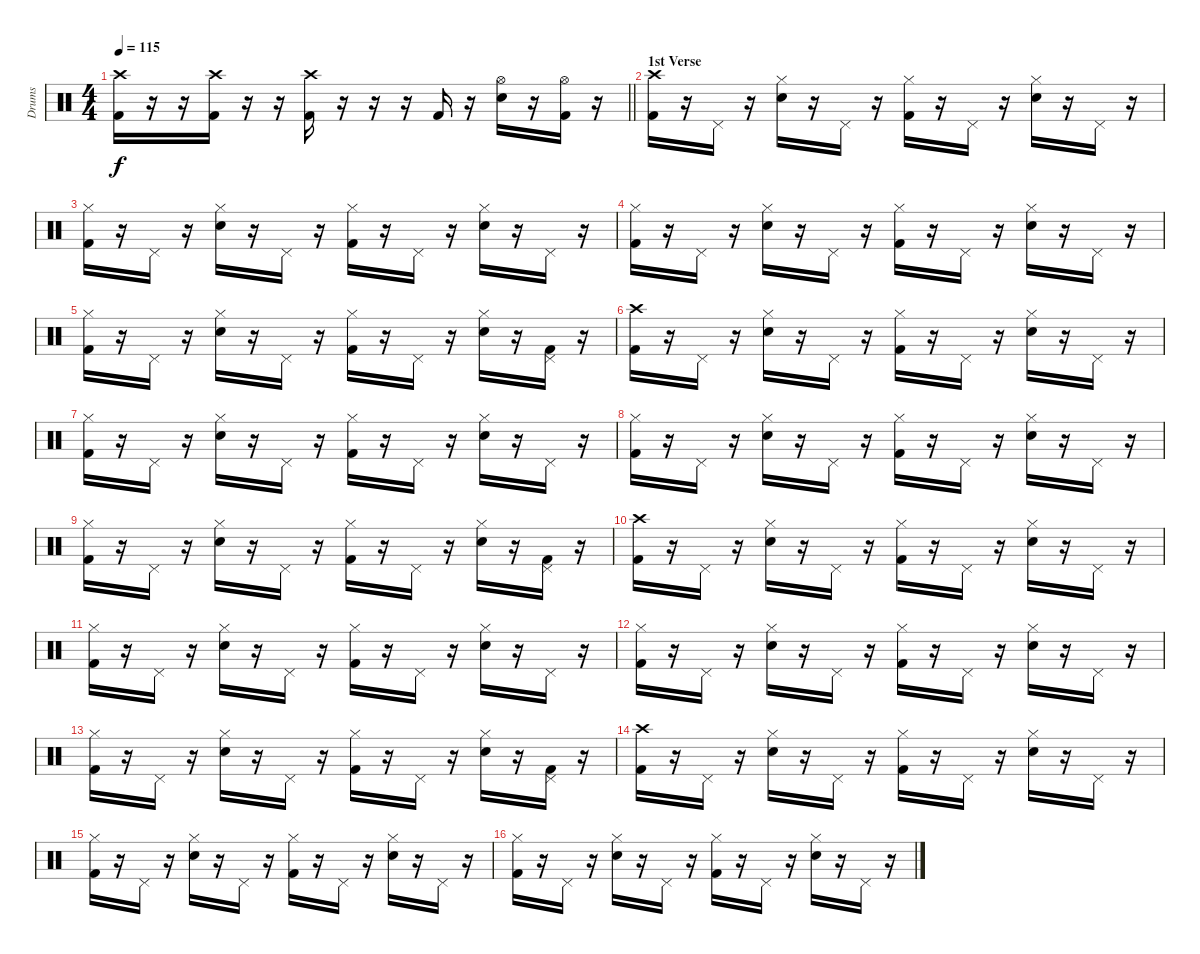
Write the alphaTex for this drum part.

\track ("Drums" "Drums") {instrument percussion}
\staff {score}
\articulation defaults
\ts (4 4)
\tempo 115
\clef neutral
\barLineRight lightlight
\ks c
("Crash high (hit)" "Kick (hit) 2").16{dy f} r.16 r.16 ("Crash high (hit)" "Kick (hit) 2").16 r.16 r.16 ("Crash high (hit)" "Kick (hit) 2").16 r.16 r.16 r.16 "Kick (hit) 2".16 r.16 ("Hi-Hat (open)" "Snare (hit) 2").16 r.16 ("Hi-Hat (open)" "Kick (hit) 2").16 r.16 |
\section ("" "1st Verse")
("Crash high (hit)" "Kick (hit) 2").16 r.16 "Pedal Hi-Hat (hit)".16 r.16 ("Hi-Hat (closed)" "Snare (hit) 2").16 r.16 "Pedal Hi-Hat (hit)".16 r.16 ("Hi-Hat (closed)" "Kick (hit) 2").16 r.16 "Pedal Hi-Hat (hit)".16 r.16 ("Hi-Hat (closed)" "Snare (hit) 2").16 r.16 "Pedal Hi-Hat (hit)".16 r.16 |
("Hi-Hat (closed)" "Kick (hit) 2").16 r.16 "Pedal Hi-Hat (hit)".16 r.16 ("Hi-Hat (closed)" "Snare (hit) 2").16 r.16 "Pedal Hi-Hat (hit)".16 r.16 ("Hi-Hat (closed)" "Kick (hit) 2").16 r.16 "Pedal Hi-Hat (hit)".16 r.16 ("Hi-Hat (closed)" "Snare (hit) 2").16 r.16 "Pedal Hi-Hat (hit)".16 r.16 |
("Hi-Hat (closed)" "Kick (hit) 2").16 r.16 "Pedal Hi-Hat (hit)".16 r.16 ("Hi-Hat (closed)" "Snare (hit) 2").16 r.16 "Pedal Hi-Hat (hit)".16 r.16 ("Hi-Hat (closed)" "Kick (hit) 2").16 r.16 "Pedal Hi-Hat (hit)".16 r.16 ("Hi-Hat (closed)" "Snare (hit) 2").16 r.16 "Pedal Hi-Hat (hit)".16 r.16 |
("Hi-Hat (closed)" "Kick (hit) 2").16 r.16 "Pedal Hi-Hat (hit)".16 r.16 ("Hi-Hat (closed)" "Snare (hit) 2").16 r.16 "Pedal Hi-Hat (hit)".16 r.16 ("Hi-Hat (closed)" "Kick (hit) 2").16 r.16 "Pedal Hi-Hat (hit)".16 r.16 ("Hi-Hat (closed)" "Snare (hit) 2").16 r.16 ("Pedal Hi-Hat (hit)" "Kick (hit) 2").16 r.16 |
("Crash high (hit)" "Kick (hit) 2").16 r.16 "Pedal Hi-Hat (hit)".16 r.16 ("Hi-Hat (closed)" "Snare (hit) 2").16 r.16 "Pedal Hi-Hat (hit)".16 r.16 ("Hi-Hat (closed)" "Kick (hit) 2").16 r.16 "Pedal Hi-Hat (hit)".16 r.16 ("Hi-Hat (closed)" "Snare (hit) 2").16 r.16 "Pedal Hi-Hat (hit)".16 r.16 |
("Hi-Hat (closed)" "Kick (hit) 2").16 r.16 "Pedal Hi-Hat (hit)".16 r.16 ("Hi-Hat (closed)" "Snare (hit) 2").16 r.16 "Pedal Hi-Hat (hit)".16 r.16 ("Hi-Hat (closed)" "Kick (hit) 2").16 r.16 "Pedal Hi-Hat (hit)".16 r.16 ("Hi-Hat (closed)" "Snare (hit) 2").16 r.16 "Pedal Hi-Hat (hit)".16 r.16 |
("Hi-Hat (closed)" "Kick (hit) 2").16 r.16 "Pedal Hi-Hat (hit)".16 r.16 ("Hi-Hat (closed)" "Snare (hit) 2").16 r.16 "Pedal Hi-Hat (hit)".16 r.16 ("Hi-Hat (closed)" "Kick (hit) 2").16 r.16 "Pedal Hi-Hat (hit)".16 r.16 ("Hi-Hat (closed)" "Snare (hit) 2").16 r.16 "Pedal Hi-Hat (hit)".16 r.16 |
("Hi-Hat (closed)" "Kick (hit) 2").16 r.16 "Pedal Hi-Hat (hit)".16 r.16 ("Hi-Hat (closed)" "Snare (hit) 2").16 r.16 "Pedal Hi-Hat (hit)".16 r.16 ("Hi-Hat (closed)" "Kick (hit) 2").16 r.16 "Pedal Hi-Hat (hit)".16 r.16 ("Hi-Hat (closed)" "Snare (hit) 2").16 r.16 ("Pedal Hi-Hat (hit)" "Kick (hit) 2").16 r.16 |
("Crash high (hit)" "Kick (hit) 2").16 r.16 "Pedal Hi-Hat (hit)".16 r.16 ("Hi-Hat (closed)" "Snare (hit) 2").16 r.16 "Pedal Hi-Hat (hit)".16 r.16 ("Hi-Hat (closed)" "Kick (hit) 2").16 r.16 "Pedal Hi-Hat (hit)".16 r.16 ("Hi-Hat (closed)" "Snare (hit) 2").16 r.16 "Pedal Hi-Hat (hit)".16 r.16 |
("Hi-Hat (closed)" "Kick (hit) 2").16 r.16 "Pedal Hi-Hat (hit)".16 r.16 ("Hi-Hat (closed)" "Snare (hit) 2").16 r.16 "Pedal Hi-Hat (hit)".16 r.16 ("Hi-Hat (closed)" "Kick (hit) 2").16 r.16 "Pedal Hi-Hat (hit)".16 r.16 ("Hi-Hat (closed)" "Snare (hit) 2").16 r.16 "Pedal Hi-Hat (hit)".16 r.16 |
("Hi-Hat (closed)" "Kick (hit) 2").16 r.16 "Pedal Hi-Hat (hit)".16 r.16 ("Hi-Hat (closed)" "Snare (hit) 2").16 r.16 "Pedal Hi-Hat (hit)".16 r.16 ("Hi-Hat (closed)" "Kick (hit) 2").16 r.16 "Pedal Hi-Hat (hit)".16 r.16 ("Hi-Hat (closed)" "Snare (hit) 2").16 r.16 "Pedal Hi-Hat (hit)".16 r.16 |
("Hi-Hat (closed)" "Kick (hit) 2").16 r.16 "Pedal Hi-Hat (hit)".16 r.16 ("Hi-Hat (closed)" "Snare (hit) 2").16 r.16 "Pedal Hi-Hat (hit)".16 r.16 ("Hi-Hat (closed)" "Kick (hit) 2").16 r.16 "Pedal Hi-Hat (hit)".16 r.16 ("Hi-Hat (closed)" "Snare (hit) 2").16 r.16 ("Pedal Hi-Hat (hit)" "Kick (hit) 2").16 r.16 |
("Crash high (hit)" "Kick (hit) 2").16 r.16 "Pedal Hi-Hat (hit)".16 r.16 ("Hi-Hat (closed)" "Snare (hit) 2").16 r.16 "Pedal Hi-Hat (hit)".16 r.16 ("Hi-Hat (closed)" "Kick (hit) 2").16 r.16 "Pedal Hi-Hat (hit)".16 r.16 ("Hi-Hat (closed)" "Snare (hit) 2").16 r.16 "Pedal Hi-Hat (hit)".16 r.16 |
("Hi-Hat (closed)" "Kick (hit) 2").16 r.16 "Pedal Hi-Hat (hit)".16 r.16 ("Hi-Hat (closed)" "Snare (hit) 2").16 r.16 "Pedal Hi-Hat (hit)".16 r.16 ("Hi-Hat (closed)" "Kick (hit) 2").16 r.16 "Pedal Hi-Hat (hit)".16 r.16 ("Hi-Hat (closed)" "Snare (hit) 2").16 r.16 "Pedal Hi-Hat (hit)".16 r.16 |
("Hi-Hat (closed)" "Kick (hit) 2").16 r.16 "Pedal Hi-Hat (hit)".16 r.16 ("Hi-Hat (closed)" "Snare (hit) 2").16 r.16 "Pedal Hi-Hat (hit)".16 r.16 ("Hi-Hat (closed)" "Kick (hit) 2").16 r.16 "Pedal Hi-Hat (hit)".16 r.16 ("Hi-Hat (closed)" "Snare (hit) 2").16 r.16 "Pedal Hi-Hat (hit)".16 r.16
